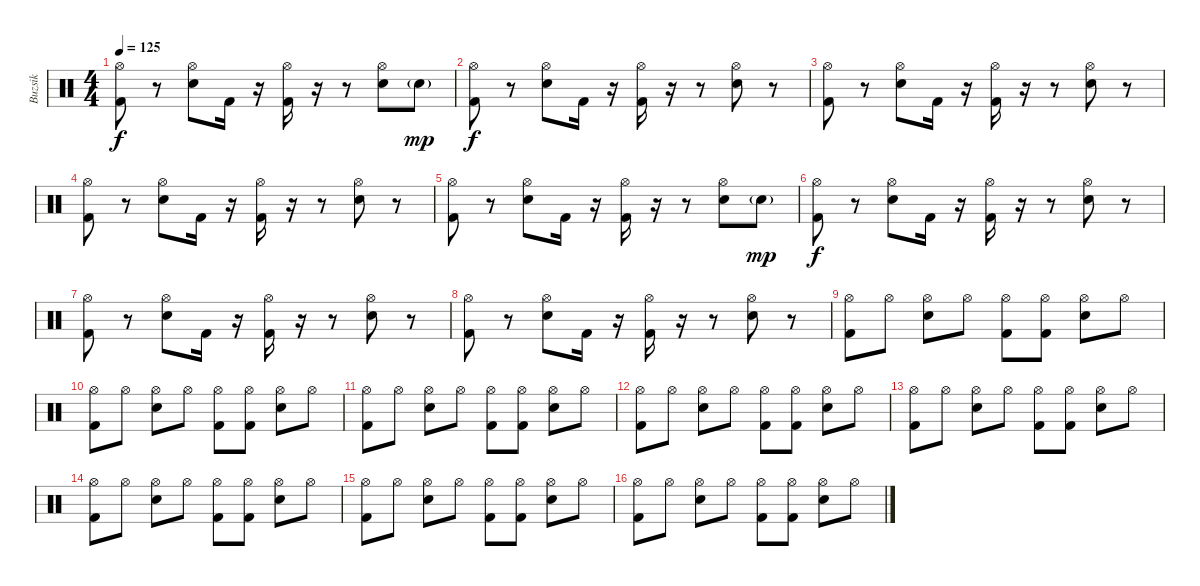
\track ("Buzsik" "Buzsik") {instrument percussion}
\staff {score}
\articulation defaults
\ts (4 4)
\tempo 125
\clef neutral
\ks c
("Hi-Hat (open)" "Kick (hit) 2").8{dy f} r.8 ("Hi-Hat (open)" "Electric Snare (hit)").8 "Kick (hit) 2".16 r.16 ("Hi-Hat (open)" "Kick (hit) 2").16 r.16 r.8 ("Hi-Hat (open)" "Electric Snare (hit)").8 "Electric Snare (hit)"{g}.8{dy mp} |
("Hi-Hat (open)" "Kick (hit) 2").8{dy f} r.8 ("Hi-Hat (open)" "Electric Snare (hit)").8 "Kick (hit) 2".16 r.16 ("Hi-Hat (open)" "Kick (hit) 2").16 r.16 r.8 ("Hi-Hat (open)" "Electric Snare (hit)").8 r.8 |
("Hi-Hat (open)" "Kick (hit) 2").8 r.8 ("Hi-Hat (open)" "Electric Snare (hit)").8 "Kick (hit) 2".16 r.16 ("Hi-Hat (open)" "Kick (hit) 2").16 r.16 r.8 ("Hi-Hat (open)" "Electric Snare (hit)").8 r.8 |
("Hi-Hat (open)" "Kick (hit) 2").8 r.8 ("Hi-Hat (open)" "Electric Snare (hit)").8 "Kick (hit) 2".16 r.16 ("Hi-Hat (open)" "Kick (hit) 2").16 r.16 r.8 ("Hi-Hat (open)" "Electric Snare (hit)").8 r.8 |
("Hi-Hat (open)" "Kick (hit) 2").8 r.8 ("Hi-Hat (open)" "Electric Snare (hit)").8 "Kick (hit) 2".16 r.16 ("Hi-Hat (open)" "Kick (hit) 2").16 r.16 r.8 ("Hi-Hat (open)" "Electric Snare (hit)").8 "Electric Snare (hit)"{g}.8{dy mp} |
("Hi-Hat (open)" "Kick (hit) 2").8{dy f} r.8 ("Hi-Hat (open)" "Electric Snare (hit)").8 "Kick (hit) 2".16 r.16 ("Hi-Hat (open)" "Kick (hit) 2").16 r.16 r.8 ("Hi-Hat (open)" "Electric Snare (hit)").8 r.8 |
("Hi-Hat (open)" "Kick (hit) 2").8 r.8 ("Hi-Hat (open)" "Electric Snare (hit)").8 "Kick (hit) 2".16 r.16 ("Hi-Hat (open)" "Kick (hit) 2").16 r.16 r.8 ("Hi-Hat (open)" "Electric Snare (hit)").8 r.8 |
("Hi-Hat (open)" "Kick (hit) 2").8 r.8 ("Hi-Hat (open)" "Electric Snare (hit)").8 "Kick (hit) 2".16 r.16 ("Hi-Hat (open)" "Kick (hit) 2").16 r.16 r.8 ("Hi-Hat (open)" "Electric Snare (hit)").8 r.8 |
("Hi-Hat (open)" "Kick (hit) 2").8 "Hi-Hat (open)".8 ("Hi-Hat (open)" "Electric Snare (hit)").8 "Hi-Hat (open)".8 ("Hi-Hat (open)" "Kick (hit) 2").8 ("Hi-Hat (open)" "Kick (hit) 2").8 ("Hi-Hat (open)" "Electric Snare (hit)").8 "Hi-Hat (open)".8 |
("Hi-Hat (open)" "Kick (hit) 2").8 "Hi-Hat (open)".8 ("Hi-Hat (open)" "Electric Snare (hit)").8 "Hi-Hat (open)".8 ("Hi-Hat (open)" "Kick (hit) 2").8 ("Hi-Hat (open)" "Kick (hit) 2").8 ("Hi-Hat (open)" "Electric Snare (hit)").8 "Hi-Hat (open)".8 |
("Hi-Hat (open)" "Kick (hit) 2").8 "Hi-Hat (open)".8 ("Hi-Hat (open)" "Electric Snare (hit)").8 "Hi-Hat (open)".8 ("Hi-Hat (open)" "Kick (hit) 2").8 ("Hi-Hat (open)" "Kick (hit) 2").8 ("Hi-Hat (open)" "Electric Snare (hit)").8 "Hi-Hat (open)".8 |
("Hi-Hat (open)" "Kick (hit) 2").8 "Hi-Hat (open)".8 ("Hi-Hat (open)" "Electric Snare (hit)").8 "Hi-Hat (open)".8 ("Hi-Hat (open)" "Kick (hit) 2").8 ("Hi-Hat (open)" "Kick (hit) 2").8 ("Hi-Hat (open)" "Electric Snare (hit)").8 "Hi-Hat (open)".8 |
("Hi-Hat (open)" "Kick (hit) 2").8 "Hi-Hat (open)".8 ("Hi-Hat (open)" "Electric Snare (hit)").8 "Hi-Hat (open)".8 ("Hi-Hat (open)" "Kick (hit) 2").8 ("Hi-Hat (open)" "Kick (hit) 2").8 ("Hi-Hat (open)" "Electric Snare (hit)").8 "Hi-Hat (open)".8 |
("Hi-Hat (open)" "Kick (hit) 2").8 "Hi-Hat (open)".8 ("Hi-Hat (open)" "Electric Snare (hit)").8 "Hi-Hat (open)".8 ("Hi-Hat (open)" "Kick (hit) 2").8 ("Hi-Hat (open)" "Kick (hit) 2").8 ("Hi-Hat (open)" "Electric Snare (hit)").8 "Hi-Hat (open)".8 |
("Hi-Hat (open)" "Kick (hit) 2").8 "Hi-Hat (open)".8 ("Hi-Hat (open)" "Electric Snare (hit)").8 "Hi-Hat (open)".8 ("Hi-Hat (open)" "Kick (hit) 2").8 ("Hi-Hat (open)" "Kick (hit) 2").8 ("Hi-Hat (open)" "Electric Snare (hit)").8 "Hi-Hat (open)".8 |
("Hi-Hat (open)" "Kick (hit) 2").8 "Hi-Hat (open)".8 ("Hi-Hat (open)" "Electric Snare (hit)").8 "Hi-Hat (open)".8 ("Hi-Hat (open)" "Kick (hit) 2").8 ("Hi-Hat (open)" "Kick (hit) 2").8 ("Hi-Hat (open)" "Electric Snare (hit)").8 "Hi-Hat (open)".8
